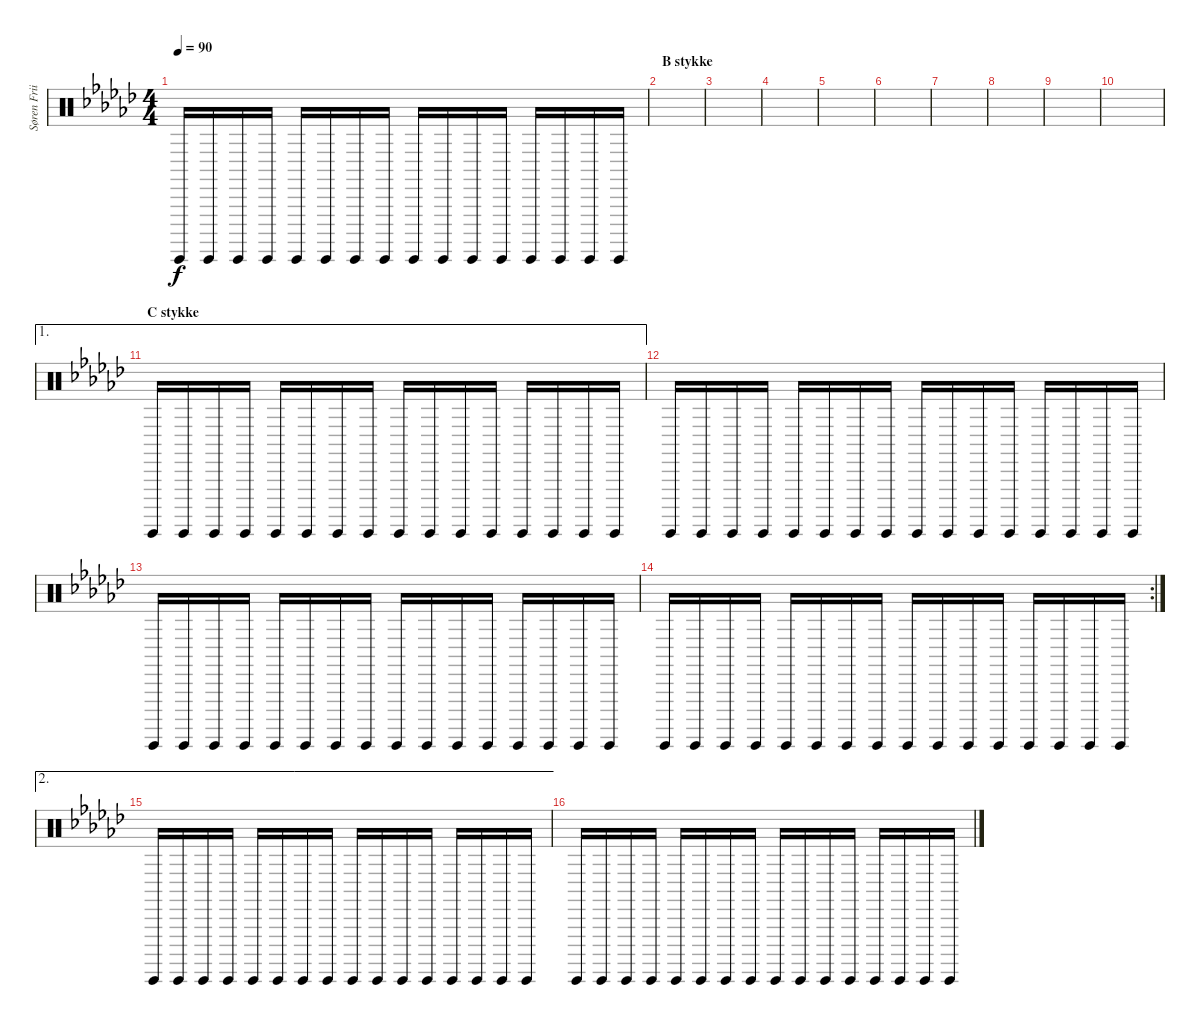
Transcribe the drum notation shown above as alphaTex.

\track ("Søren Friis (Percussion)" "Søren Frii") {instrument percussion}
\staff {score}
\articulation defaults
\ts (4 4)
\tempo 90
\clef neutral
\ks gb "Guiro (hit)".16{dy f} "Guiro (hit)".16 "Guiro (hit)".16 "Guiro (hit)".16 "Guiro (hit)".16 "Guiro (hit)".16 "Guiro (hit)".16 "Guiro (hit)".16 "Guiro (hit)".16 "Guiro (hit)".16 "Guiro (hit)".16 "Guiro (hit)".16 "Guiro (hit)".16 "Guiro (hit)".16 "Guiro (hit)".16 "Guiro (hit)".16
|
\section ("" "B stykke")
|
|
|
|
|
|
|
|
|
\ae 1
\section ("" "C stykke")
"Guiro (hit)".16 "Guiro (hit)".16 "Guiro (hit)".16 "Guiro (hit)".16 "Guiro (hit)".16 "Guiro (hit)".16 "Guiro (hit)".16 "Guiro (hit)".16 "Guiro (hit)".16 "Guiro (hit)".16 "Guiro (hit)".16 "Guiro (hit)".16 "Guiro (hit)".16 "Guiro (hit)".16 "Guiro (hit)".16 "Guiro (hit)".16 |
"Guiro (hit)".16 "Guiro (hit)".16 "Guiro (hit)".16 "Guiro (hit)".16 "Guiro (hit)".16 "Guiro (hit)".16 "Guiro (hit)".16 "Guiro (hit)".16 "Guiro (hit)".16 "Guiro (hit)".16 "Guiro (hit)".16 "Guiro (hit)".16 "Guiro (hit)".16 "Guiro (hit)".16 "Guiro (hit)".16 "Guiro (hit)".16 |
"Guiro (hit)".16 "Guiro (hit)".16 "Guiro (hit)".16 "Guiro (hit)".16 "Guiro (hit)".16 "Guiro (hit)".16 "Guiro (hit)".16 "Guiro (hit)".16 "Guiro (hit)".16 "Guiro (hit)".16 "Guiro (hit)".16 "Guiro (hit)".16 "Guiro (hit)".16 "Guiro (hit)".16 "Guiro (hit)".16 "Guiro (hit)".16 |
\rc 2 "Guiro (hit)".16 "Guiro (hit)".16 "Guiro (hit)".16 "Guiro (hit)".16 "Guiro (hit)".16 "Guiro (hit)".16 "Guiro (hit)".16 "Guiro (hit)".16 "Guiro (hit)".16 "Guiro (hit)".16 "Guiro (hit)".16 "Guiro (hit)".16 "Guiro (hit)".16 "Guiro (hit)".16 "Guiro (hit)".16 "Guiro (hit)".16
|
\ae 2 "Guiro (hit)".16 "Guiro (hit)".16 "Guiro (hit)".16 "Guiro (hit)".16 "Guiro (hit)".16 "Guiro (hit)".16 "Guiro (hit)".16 "Guiro (hit)".16 "Guiro (hit)".16 "Guiro (hit)".16 "Guiro (hit)".16 "Guiro (hit)".16 "Guiro (hit)".16 "Guiro (hit)".16 "Guiro (hit)".16 "Guiro (hit)".16
|
"Guiro (hit)".16 "Guiro (hit)".16 "Guiro (hit)".16 "Guiro (hit)".16 "Guiro (hit)".16 "Guiro (hit)".16 "Guiro (hit)".16 "Guiro (hit)".16 "Guiro (hit)".16 "Guiro (hit)".16 "Guiro (hit)".16 "Guiro (hit)".16 "Guiro (hit)".16 "Guiro (hit)".16 "Guiro (hit)".16 "Guiro (hit)".16
